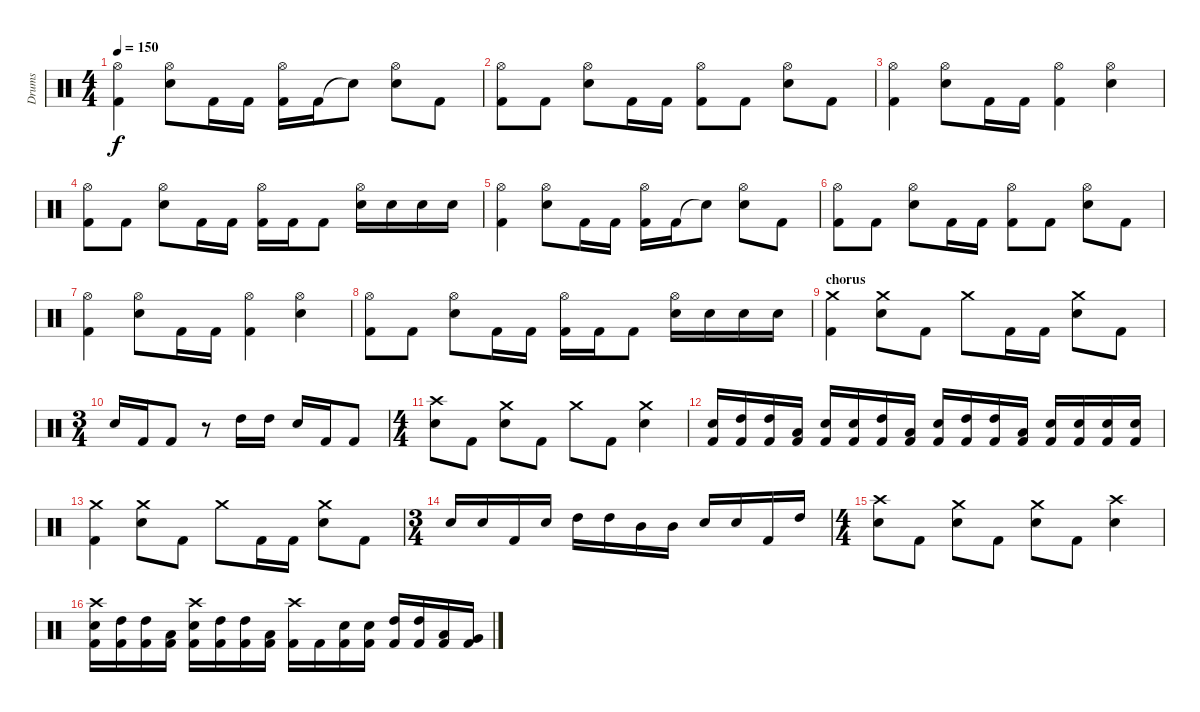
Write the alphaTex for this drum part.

\track ("Drums" "Drums") {instrument percussion}
\staff {score}
\articulation defaults
\ts (4 4)
\tempo 150
\clef neutral
\ks c
("Hi-Hat (open)" "Kick (hit) 2").4{dy f} ("Hi-Hat (open)" "Electric Snare (hit)").8 "Kick (hit) 2".16 "Kick (hit) 2".16 ("Hi-Hat (open)" "Kick (hit) 2").16 "Kick (hit) 2".16 "Snare (hit)"{t}.8 ("Hi-Hat (open)" "Electric Snare (hit)").8 "Kick (hit) 2".8 |
("Hi-Hat (open)" "Kick (hit) 2").8 "Kick (hit) 2".8 ("Hi-Hat (open)" "Electric Snare (hit)").8 "Kick (hit) 2".16 "Kick (hit) 2".16 ("Hi-Hat (open)" "Kick (hit) 2").8 "Kick (hit) 2".8 ("Hi-Hat (open)" "Electric Snare (hit)").8 "Kick (hit) 2".8 |
("Hi-Hat (open)" "Kick (hit) 2").4 ("Hi-Hat (open)" "Electric Snare (hit)").8 "Kick (hit) 2".16 "Kick (hit) 2".16 ("Hi-Hat (open)" "Kick (hit) 2").4 ("Hi-Hat (open)" "Electric Snare (hit)").4 |
("Hi-Hat (open)" "Kick (hit) 2").8 "Kick (hit) 2".8 ("Hi-Hat (open)" "Electric Snare (hit)").8 "Kick (hit) 2".16 "Kick (hit) 2".16 ("Hi-Hat (open)" "Kick (hit) 2").16 "Kick (hit) 2".16 "Kick (hit) 2".8 ("Hi-Hat (open)" "Electric Snare (hit)").16 "Electric Snare (hit)".16 "Electric Snare (hit)".16 "Electric Snare (hit)".16 |
("Hi-Hat (open)" "Kick (hit) 2").4 ("Hi-Hat (open)" "Electric Snare (hit)").8 "Kick (hit) 2".16 "Kick (hit) 2".16 ("Hi-Hat (open)" "Kick (hit) 2").16 "Kick (hit) 2".16 "Snare (hit)"{t}.8 ("Hi-Hat (open)" "Electric Snare (hit)").8 "Kick (hit) 2".8 |
("Hi-Hat (open)" "Kick (hit) 2").8 "Kick (hit) 2".8 ("Hi-Hat (open)" "Electric Snare (hit)").8 "Kick (hit) 2".16 "Kick (hit) 2".16 ("Hi-Hat (open)" "Kick (hit) 2").8 "Kick (hit) 2".8 ("Hi-Hat (open)" "Electric Snare (hit)").8 "Kick (hit) 2".8 |
("Hi-Hat (open)" "Kick (hit) 2").4 ("Hi-Hat (open)" "Electric Snare (hit)").8 "Kick (hit) 2".16 "Kick (hit) 2".16 ("Hi-Hat (open)" "Kick (hit) 2").4 ("Hi-Hat (open)" "Electric Snare (hit)").4 |
("Hi-Hat (open)" "Kick (hit) 2").8 "Kick (hit) 2".8 ("Hi-Hat (open)" "Electric Snare (hit)").8 "Kick (hit) 2".16 "Kick (hit) 2".16 ("Hi-Hat (open)" "Kick (hit) 2").16 "Kick (hit) 2".16 "Kick (hit) 2".8 ("Hi-Hat (open)" "Electric Snare (hit)").16 "Electric Snare (hit)".16 "Electric Snare (hit)".16 "Electric Snare (hit)".16 |
\section ("" "chorus")
("Crash medium (hit)" "Kick (hit) 2").4 ("Crash medium (hit)" "Electric Snare (hit)").8 "Kick (hit) 2".8 "Crash medium (hit)".8 "Kick (hit) 2".16 "Kick (hit) 2".16 ("Crash medium (hit)" "Electric Snare (hit)").8 "Kick (hit) 2".8 |
\ts (3 4)
"Electric Snare (hit)".16 "Kick (hit) 2".16 "Kick (hit) 2".8 r.8 "High Tom (hit)".16 "High Tom (hit)".16 "Electric Snare (hit)".16 "Kick (hit) 2".16 "Kick (hit) 2".8 |
\ts (4 4)
("Crash high (hit)" "Electric Snare (hit)").8 "Kick (hit) 2".8 ("Crash medium (hit)" "Electric Snare (hit)").8 "Kick (hit) 2".8 "Crash medium (hit)".8 "Kick (hit) 2".8 ("Crash medium (hit)" "Electric Snare (hit)").4 |
("Electric Snare (hit)" "Kick (hit) 2").16 ("High Tom (hit)" "Kick (hit) 2").16 ("High Tom (hit)" "Kick (hit) 2").16 ("Low Tom (hit)" "Kick (hit) 2").16 ("Electric Snare (hit)" "Kick (hit) 2").16 ("Electric Snare (hit)" "Kick (hit) 2").16 ("High Tom (hit)" "Kick (hit) 2").16 ("Low Tom (hit)" "Kick (hit) 2").16 ("Electric Snare (hit)" "Kick (hit) 2").16 ("High Tom (hit)" "Kick (hit) 2").16 ("High Tom (hit)" "Kick (hit) 2").16 ("Low Tom (hit)" "Kick (hit) 2").16 ("Electric Snare (hit)" "Kick (hit) 2").16 ("Electric Snare (hit)" "Kick (hit) 2").16 ("Electric Snare (hit)" "Kick (hit) 2").16 ("Electric Snare (hit)" "Kick (hit) 2").16 |
("Crash medium (hit)" "Kick (hit) 2").4 ("Crash medium (hit)" "Electric Snare (hit)").8 "Kick (hit) 2".8 "Crash medium (hit)".8 "Kick (hit) 2".16 "Kick (hit) 2".16 ("Crash medium (hit)" "Electric Snare (hit)").8 "Kick (hit) 2".8 |
\ts (3 4)
"Electric Snare (hit)".16 "Electric Snare (hit)".16 "Kick (hit) 2".16 "Electric Snare (hit)".16 "High Tom (hit)".16 "High Tom (hit)".16 "Mid Tom (hit)".16 "Mid Tom (hit)".16 "Electric Snare (hit)".16 "Electric Snare (hit)".16 "Kick (hit) 2".16 "High Tom (hit)".16 |
\ts (4 4)
("Crash high (hit)" "Electric Snare (hit)").8 "Kick (hit) 2".8 ("Crash medium (hit)" "Electric Snare (hit)").8 "Kick (hit) 2".8 ("Crash medium (hit)" "Electric Snare (hit)").8 "Kick (hit) 2".8 ("Crash high (hit)" "Electric Snare (hit)").4 |
("Crash high (hit)" "Electric Snare (hit)" "Kick (hit) 2").16 ("High Tom (hit)" "Kick (hit) 2").16 ("High Tom (hit)" "Kick (hit) 2").16 ("Low Tom (hit)" "Kick (hit) 2").16 ("Crash high (hit)" "Electric Snare (hit)" "Kick (hit) 2").16 ("High Tom (hit)" "Kick (hit) 2").16 ("High Tom (hit)" "Kick (hit) 2").16 ("Low Tom (hit)" "Kick (hit) 2").16 ("Crash high (hit)" "Kick (hit) 2").16 "Kick (hit) 2".16 ("Electric Snare (hit)" "Kick (hit) 2").16 ("Electric Snare (hit)" "Kick (hit) 2").16 ("High Tom (hit)" "Kick (hit) 2").16 ("High Tom (hit)" "Kick (hit) 2").16 ("Low Tom (hit)" "Kick (hit) 2").16 ("Very Low Tom (hit)" "Kick (hit) 2").16
